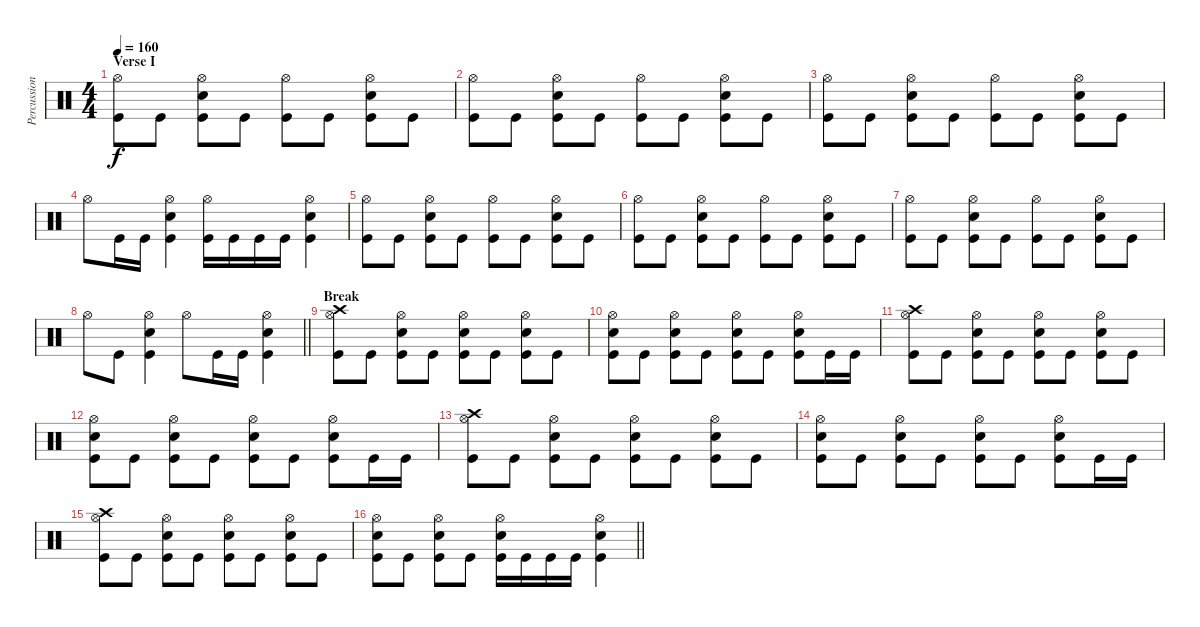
\track ("Percussion" "Percussion") {instrument percussion}
\staff {score}
\articulation defaults
\ts (4 4)
\section ("" "Verse I")
\tempo 160
\clef neutral
\ks c
("Hi-Hat (open)" "Kick (hit)").8{dy f} "Kick (hit)".8 ("Hi-Hat (open)" "Electric Snare (hit)" "Kick (hit)").8 "Kick (hit)".8 ("Hi-Hat (open)" "Kick (hit)").8 "Kick (hit)".8 ("Hi-Hat (open)" "Electric Snare (hit)" "Kick (hit)").8 "Kick (hit)".8 |
("Hi-Hat (open)" "Kick (hit)").8 "Kick (hit)".8 ("Hi-Hat (open)" "Electric Snare (hit)" "Kick (hit)").8 "Kick (hit)".8 ("Hi-Hat (open)" "Kick (hit)").8 "Kick (hit)".8 ("Hi-Hat (open)" "Electric Snare (hit)" "Kick (hit)").8 "Kick (hit)".8 |
("Hi-Hat (open)" "Kick (hit)").8 "Kick (hit)".8 ("Hi-Hat (open)" "Electric Snare (hit)" "Kick (hit)").8 "Kick (hit)".8 ("Hi-Hat (open)" "Kick (hit)").8 "Kick (hit)".8 ("Hi-Hat (open)" "Electric Snare (hit)" "Kick (hit)").8 "Kick (hit)".8 |
"Hi-Hat (open)".8 "Kick (hit)".16 "Kick (hit)".16 ("Hi-Hat (open)" "Electric Snare (hit)" "Kick (hit)").4 ("Hi-Hat (open)" "Kick (hit)").16 "Kick (hit)".16 "Kick (hit)".16 "Kick (hit)".16 ("Hi-Hat (open)" "Electric Snare (hit)" "Kick (hit)").4 |
("Hi-Hat (open)" "Kick (hit)").8 "Kick (hit)".8 ("Hi-Hat (open)" "Electric Snare (hit)" "Kick (hit)").8 "Kick (hit)".8 ("Hi-Hat (open)" "Kick (hit)").8 "Kick (hit)".8 ("Hi-Hat (open)" "Electric Snare (hit)" "Kick (hit)").8 "Kick (hit)".8 |
("Hi-Hat (open)" "Kick (hit)").8 "Kick (hit)".8 ("Hi-Hat (open)" "Electric Snare (hit)" "Kick (hit)").8 "Kick (hit)".8 ("Hi-Hat (open)" "Kick (hit)").8 "Kick (hit)".8 ("Hi-Hat (open)" "Electric Snare (hit)" "Kick (hit)").8 "Kick (hit)".8 |
("Hi-Hat (open)" "Kick (hit)").8 "Kick (hit)".8 ("Hi-Hat (open)" "Electric Snare (hit)" "Kick (hit)").8 "Kick (hit)".8 ("Hi-Hat (open)" "Kick (hit)").8 "Kick (hit)".8 ("Hi-Hat (open)" "Electric Snare (hit)" "Kick (hit)").8 "Kick (hit)".8 |
\barLineRight lightlight "Hi-Hat (open)".8 "Kick (hit)".8
("Hi-Hat (open)" "Electric Snare (hit)" "Kick (hit)").4 "Hi-Hat (open)".8 "Kick (hit)".16 "Kick (hit)".16 ("Hi-Hat (open)" "Electric Snare (hit)" "Kick (hit)").4 |
\section ("" "Break")
("Crash high (hit)" "Hi-Hat (open)" "Kick (hit)").8 "Kick (hit)".8 ("Hi-Hat (open)" "Electric Snare (hit)" "Kick (hit)").8 "Kick (hit)".8 ("Hi-Hat (open)" "Electric Snare (hit)" "Kick (hit)").8 "Kick (hit)".8 ("Hi-Hat (open)" "Electric Snare (hit)" "Kick (hit)").8 "Kick (hit)".8 |
("Hi-Hat (open)" "Electric Snare (hit)" "Kick (hit)").8 "Kick (hit)".8 ("Hi-Hat (open)" "Electric Snare (hit)" "Kick (hit)").8 "Kick (hit)".8 ("Hi-Hat (open)" "Electric Snare (hit)" "Kick (hit)").8 "Kick (hit)".8 ("Hi-Hat (open)" "Electric Snare (hit)" "Kick (hit)").8 "Kick (hit)".16 "Kick (hit)".16 |
("Crash high (hit)" "Hi-Hat (open)" "Kick (hit)").8 "Kick (hit)".8 ("Hi-Hat (open)" "Electric Snare (hit)" "Kick (hit)").8 "Kick (hit)".8 ("Hi-Hat (open)" "Electric Snare (hit)" "Kick (hit)").8 "Kick (hit)".8 ("Hi-Hat (open)" "Electric Snare (hit)" "Kick (hit)").8 "Kick (hit)".8 |
("Hi-Hat (open)" "Electric Snare (hit)" "Kick (hit)").8 "Kick (hit)".8 ("Hi-Hat (open)" "Electric Snare (hit)" "Kick (hit)").8 "Kick (hit)".8 ("Hi-Hat (open)" "Electric Snare (hit)" "Kick (hit)").8 "Kick (hit)".8 ("Hi-Hat (open)" "Electric Snare (hit)" "Kick (hit)").8 "Kick (hit)".16 "Kick (hit)".16 |
("Crash high (hit)" "Hi-Hat (open)" "Kick (hit)").8 "Kick (hit)".8 ("Hi-Hat (open)" "Electric Snare (hit)" "Kick (hit)").8 "Kick (hit)".8 ("Hi-Hat (open)" "Electric Snare (hit)" "Kick (hit)").8 "Kick (hit)".8 ("Hi-Hat (open)" "Electric Snare (hit)" "Kick (hit)").8 "Kick (hit)".8 |
("Hi-Hat (open)" "Electric Snare (hit)" "Kick (hit)").8 "Kick (hit)".8 ("Hi-Hat (open)" "Electric Snare (hit)" "Kick (hit)").8 "Kick (hit)".8 ("Hi-Hat (open)" "Electric Snare (hit)" "Kick (hit)").8 "Kick (hit)".8 ("Hi-Hat (open)" "Electric Snare (hit)" "Kick (hit)").8 "Kick (hit)".16 "Kick (hit)".16 |
("Crash high (hit)" "Hi-Hat (open)" "Kick (hit)").8 "Kick (hit)".8 ("Hi-Hat (open)" "Electric Snare (hit)" "Kick (hit)").8 "Kick (hit)".8 ("Hi-Hat (open)" "Electric Snare (hit)" "Kick (hit)").8 "Kick (hit)".8 ("Hi-Hat (open)" "Electric Snare (hit)" "Kick (hit)").8 "Kick (hit)".8 |
\barLineRight lightlight
("Hi-Hat (open)" "Electric Snare (hit)" "Kick (hit)").8 "Kick (hit)".8 ("Hi-Hat (open)" "Electric Snare (hit)" "Kick (hit)").8 "Kick (hit)".8 ("Hi-Hat (open)" "Electric Snare (hit)" "Kick (hit)").16 "Kick (hit)".16 "Kick (hit)".16 "Kick (hit)".16 ("Hi-Hat (open)" "Electric Snare (hit)" "Kick (hit)").4
